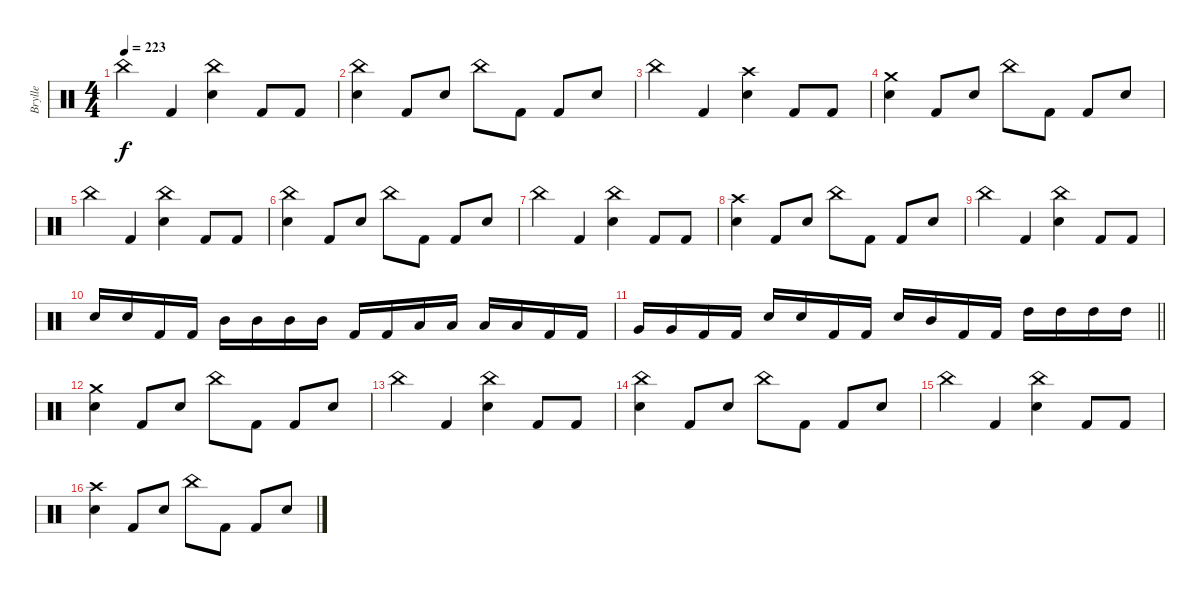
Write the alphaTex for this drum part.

\track ("Brylle" "Brylle") {instrument percussion}
\staff {score}
\articulation defaults
\ts (4 4)
\tempo 223
\clef neutral
\ks c "China (hit)".4{dy f} "Kick (hit) 2".4
("China (hit)" "Electric Snare (hit)").4 "Kick (hit) 2".8 "Kick (hit) 2".8 |
("China (hit)" "Electric Snare (hit)").4 "Kick (hit) 2".8 "Electric Snare (hit)".8 "China (hit)".8 "Kick (hit) 2".8 "Kick (hit) 2".8 "Electric Snare (hit)".8 |
"China (hit)".4 "Kick (hit) 2".4 ("Crash high (hit)" "Electric Snare (hit)").4 "Kick (hit) 2".8 "Kick (hit) 2".8 |
("Crash medium (hit)" "Electric Snare (hit)").4 "Kick (hit) 2".8 "Electric Snare (hit)".8 "China (hit)".8 "Kick (hit) 2".8 "Kick (hit) 2".8 "Electric Snare (hit)".8 |
"China (hit)".4 "Kick (hit) 2".4 ("China (hit)" "Electric Snare (hit)").4 "Kick (hit) 2".8 "Kick (hit) 2".8 |
("China (hit)" "Electric Snare (hit)").4 "Kick (hit) 2".8 "Electric Snare (hit)".8 "China (hit)".8 "Kick (hit) 2".8 "Kick (hit) 2".8 "Electric Snare (hit)".8 |
"China (hit)".4 "Kick (hit) 2".4 ("China (hit)" "Electric Snare (hit)").4 "Kick (hit) 2".8 "Kick (hit) 2".8 |
("Crash high (hit)" "Electric Snare (hit)").4 "Kick (hit) 2".8 "Electric Snare (hit)".8 "China (hit)".8 "Kick (hit) 2".8 "Kick (hit) 2".8 "Electric Snare (hit)".8 |
"China (hit)".4 "Kick (hit) 2".4 ("China (hit)" "Electric Snare (hit)").4 "Kick (hit) 2".8 "Kick (hit) 2".8 |
"Electric Snare (hit)".16 "Electric Snare (hit)".16 "Kick (hit) 2".16 "Kick (hit) 2".16 "Mid Tom (hit)".16 "Mid Tom (hit)".16 "Mid Tom (hit)".16 "Mid Tom (hit)".16 "Kick (hit) 2".16 "Kick (hit) 2".16 "Low Tom (hit)".16 "Low Tom (hit)".16 "Low Tom (hit)".16 "Low Tom (hit)".16 "Kick (hit) 2".16 "Kick (hit) 2".16 |
\barLineRight lightlight "Very Low Tom (hit)".16 "Very Low Tom (hit)".16 "Kick (hit) 2".16 "Kick (hit) 2".16 "Electric Snare (hit)".16 "Electric Snare (hit)".16 "Kick (hit) 2".16 "Kick (hit) 2".16 "Electric Snare (hit)".16 "Mid Tom (hit)".16 "Kick (hit) 2".16 "Kick (hit) 2".16 "High Tom (hit)".16 "High Tom (hit)".16 "High Tom (hit)".16 "High Tom (hit)".16
|
("Crash medium (hit)" "Electric Snare (hit)").4 "Kick (hit) 2".8 "Electric Snare (hit)".8 "China (hit)".8 "Kick (hit) 2".8 "Kick (hit) 2".8 "Electric Snare (hit)".8 |
"China (hit)".4 "Kick (hit) 2".4 ("China (hit)" "Electric Snare (hit)").4 "Kick (hit) 2".8 "Kick (hit) 2".8 |
("China (hit)" "Electric Snare (hit)").4 "Kick (hit) 2".8 "Electric Snare (hit)".8 "China (hit)".8 "Kick (hit) 2".8 "Kick (hit) 2".8 "Electric Snare (hit)".8 |
"China (hit)".4 "Kick (hit) 2".4 ("China (hit)" "Electric Snare (hit)").4 "Kick (hit) 2".8 "Kick (hit) 2".8 |
("Crash high (hit)" "Electric Snare (hit)").4 "Kick (hit) 2".8 "Electric Snare (hit)".8 "China (hit)".8 "Kick (hit) 2".8 "Kick (hit) 2".8 "Electric Snare (hit)".8
